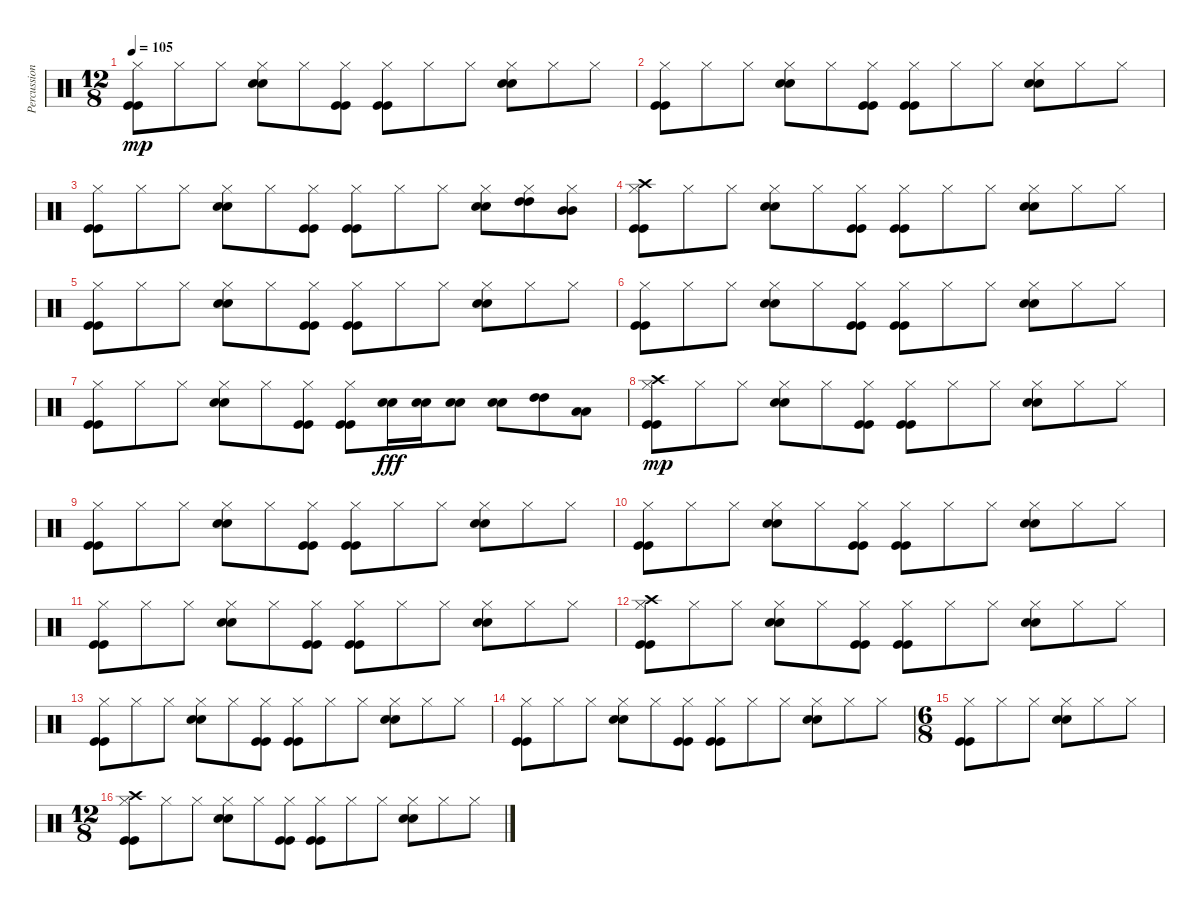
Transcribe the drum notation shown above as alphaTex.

\track ("Percussion" "Percussion") {instrument percussion}
\staff {score}
\articulation defaults
\ts (12 8)
\tempo 105
\clef neutral
\ks c
("Kick (hit)" "Kick (hit)" "Hi-Hat (closed)").8{dy mp} "Hi-Hat (closed)".8 "Hi-Hat (closed)".8 ("Snare (hit) 2" "Snare (hit) 2" "Hi-Hat (closed)").8 "Hi-Hat (closed)".8 ("Kick (hit)" "Kick (hit)" "Hi-Hat (closed)").8 ("Kick (hit)" "Kick (hit)" "Hi-Hat (closed)").8 "Hi-Hat (closed)".8 "Hi-Hat (closed)".8 ("Snare (hit) 2" "Snare (hit) 2" "Hi-Hat (closed)").8 "Hi-Hat (closed)".8 "Hi-Hat (closed)".8 |
("Kick (hit)" "Kick (hit)" "Hi-Hat (closed)").8 "Hi-Hat (closed)".8 "Hi-Hat (closed)".8 ("Snare (hit) 2" "Snare (hit) 2" "Hi-Hat (closed)").8 "Hi-Hat (closed)".8 ("Kick (hit)" "Kick (hit)" "Hi-Hat (closed)").8 ("Kick (hit)" "Kick (hit)" "Hi-Hat (closed)").8 "Hi-Hat (closed)".8 "Hi-Hat (closed)".8 ("Snare (hit) 2" "Snare (hit) 2" "Hi-Hat (closed)").8 "Hi-Hat (closed)".8 "Hi-Hat (closed)".8 |
("Kick (hit)" "Kick (hit)" "Hi-Hat (closed)").8 "Hi-Hat (closed)".8 "Hi-Hat (closed)".8 ("Snare (hit) 2" "Snare (hit) 2" "Hi-Hat (closed)").8 "Hi-Hat (closed)".8 ("Kick (hit)" "Kick (hit)" "Hi-Hat (closed)").8 ("Kick (hit)" "Kick (hit)" "Hi-Hat (closed)").8 "Hi-Hat (closed)".8 "Hi-Hat (closed)".8 ("Snare (hit) 2" "Snare (hit) 2" "Hi-Hat (closed)").8 ("High Tom (hit)" "High Tom (hit)" "Hi-Hat (closed)").8 ("Mid Tom (hit)" "Mid Tom (hit)" "Hi-Hat (closed)").8 |
("Kick (hit)" "Crash high (hit)" "Kick (hit)" "Hi-Hat (closed)").8 "Hi-Hat (closed)".8 "Hi-Hat (closed)".8 ("Snare (hit) 2" "Snare (hit) 2" "Hi-Hat (closed)").8 "Hi-Hat (closed)".8 ("Kick (hit)" "Kick (hit)" "Hi-Hat (closed)").8 ("Kick (hit)" "Kick (hit)" "Hi-Hat (closed)").8 "Hi-Hat (closed)".8 "Hi-Hat (closed)".8 ("Snare (hit) 2" "Snare (hit) 2" "Hi-Hat (closed)").8 "Hi-Hat (closed)".8 "Hi-Hat (closed)".8 |
("Kick (hit)" "Kick (hit)" "Hi-Hat (closed)").8 "Hi-Hat (closed)".8 "Hi-Hat (closed)".8 ("Snare (hit) 2" "Snare (hit) 2" "Hi-Hat (closed)").8 "Hi-Hat (closed)".8 ("Kick (hit)" "Kick (hit)" "Hi-Hat (closed)").8 ("Kick (hit)" "Kick (hit)" "Hi-Hat (closed)").8 "Hi-Hat (closed)".8 "Hi-Hat (closed)".8 ("Snare (hit) 2" "Snare (hit) 2" "Hi-Hat (closed)").8 "Hi-Hat (closed)".8 "Hi-Hat (closed)".8 |
("Kick (hit)" "Kick (hit)" "Hi-Hat (closed)").8 "Hi-Hat (closed)".8 "Hi-Hat (closed)".8 ("Snare (hit) 2" "Snare (hit) 2" "Hi-Hat (closed)").8 "Hi-Hat (closed)".8 ("Kick (hit)" "Kick (hit)" "Hi-Hat (closed)").8 ("Kick (hit)" "Kick (hit)" "Hi-Hat (closed)").8 "Hi-Hat (closed)".8 "Hi-Hat (closed)".8 ("Snare (hit) 2" "Snare (hit) 2" "Hi-Hat (closed)").8 "Hi-Hat (closed)".8 "Hi-Hat (closed)".8 |
("Kick (hit)" "Kick (hit)" "Hi-Hat (closed)").8 "Hi-Hat (closed)".8 "Hi-Hat (closed)".8 ("Snare (hit) 2" "Snare (hit) 2" "Hi-Hat (closed)").8 "Hi-Hat (closed)".8 ("Kick (hit)" "Kick (hit)" "Hi-Hat (closed)").8 ("Kick (hit)" "Kick (hit)" "Hi-Hat (closed)").8 ("Snare (hit) 2" "Snare (hit) 2").16{dy fff} ("Snare (hit) 2" "Snare (hit) 2").16 ("Snare (hit) 2" "Snare (hit) 2").8 ("Snare (hit) 2" "Snare (hit) 2").8 ("High Tom (hit)" "High Tom (hit)").8 ("Low Tom (hit)" "Low Tom (hit)").8 |
("Kick (hit)" "Crash high (hit)" "Kick (hit)" "Hi-Hat (closed)").8{dy mp} "Hi-Hat (closed)".8 "Hi-Hat (closed)".8 ("Snare (hit) 2" "Snare (hit) 2" "Hi-Hat (closed)").8 "Hi-Hat (closed)".8 ("Kick (hit)" "Kick (hit)" "Hi-Hat (closed)").8 ("Kick (hit)" "Kick (hit)" "Hi-Hat (closed)").8 "Hi-Hat (closed)".8 "Hi-Hat (closed)".8 ("Snare (hit) 2" "Snare (hit) 2" "Hi-Hat (closed)").8 "Hi-Hat (closed)".8 "Hi-Hat (closed)".8 |
("Kick (hit)" "Kick (hit)" "Hi-Hat (closed)").8 "Hi-Hat (closed)".8 "Hi-Hat (closed)".8 ("Snare (hit) 2" "Snare (hit) 2" "Hi-Hat (closed)").8 "Hi-Hat (closed)".8 ("Kick (hit)" "Kick (hit)" "Hi-Hat (closed)").8 ("Kick (hit)" "Kick (hit)" "Hi-Hat (closed)").8 "Hi-Hat (closed)".8 "Hi-Hat (closed)".8 ("Snare (hit) 2" "Snare (hit) 2" "Hi-Hat (closed)").8 "Hi-Hat (closed)".8 "Hi-Hat (closed)".8 |
("Kick (hit)" "Kick (hit)" "Hi-Hat (closed)").8 "Hi-Hat (closed)".8 "Hi-Hat (closed)".8 ("Snare (hit) 2" "Snare (hit) 2" "Hi-Hat (closed)").8 "Hi-Hat (closed)".8 ("Kick (hit)" "Kick (hit)" "Hi-Hat (closed)").8 ("Kick (hit)" "Kick (hit)" "Hi-Hat (closed)").8 "Hi-Hat (closed)".8 "Hi-Hat (closed)".8 ("Snare (hit) 2" "Snare (hit) 2" "Hi-Hat (closed)").8 "Hi-Hat (closed)".8 "Hi-Hat (closed)".8 |
("Kick (hit)" "Kick (hit)" "Hi-Hat (closed)").8 "Hi-Hat (closed)".8 "Hi-Hat (closed)".8 ("Snare (hit) 2" "Snare (hit) 2" "Hi-Hat (closed)").8 "Hi-Hat (closed)".8 ("Kick (hit)" "Kick (hit)" "Hi-Hat (closed)").8 ("Kick (hit)" "Kick (hit)" "Hi-Hat (closed)").8 "Hi-Hat (closed)".8 "Hi-Hat (closed)".8 ("Snare (hit) 2" "Snare (hit) 2" "Hi-Hat (closed)").8 "Hi-Hat (closed)".8 "Hi-Hat (closed)".8 |
("Kick (hit)" "Crash high (hit)" "Kick (hit)" "Hi-Hat (closed)").8 "Hi-Hat (closed)".8 "Hi-Hat (closed)".8 ("Snare (hit) 2" "Snare (hit) 2" "Hi-Hat (closed)").8 "Hi-Hat (closed)".8 ("Kick (hit)" "Kick (hit)" "Hi-Hat (closed)").8 ("Kick (hit)" "Kick (hit)" "Hi-Hat (closed)").8 "Hi-Hat (closed)".8 "Hi-Hat (closed)".8 ("Snare (hit) 2" "Snare (hit) 2" "Hi-Hat (closed)").8 "Hi-Hat (closed)".8 "Hi-Hat (closed)".8 |
("Kick (hit)" "Kick (hit)" "Hi-Hat (closed)").8 "Hi-Hat (closed)".8 "Hi-Hat (closed)".8 ("Snare (hit) 2" "Snare (hit) 2" "Hi-Hat (closed)").8 "Hi-Hat (closed)".8 ("Kick (hit)" "Kick (hit)" "Hi-Hat (closed)").8 ("Kick (hit)" "Kick (hit)" "Hi-Hat (closed)").8 "Hi-Hat (closed)".8 "Hi-Hat (closed)".8 ("Snare (hit) 2" "Snare (hit) 2" "Hi-Hat (closed)").8 "Hi-Hat (closed)".8 "Hi-Hat (closed)".8 |
("Kick (hit)" "Kick (hit)" "Hi-Hat (closed)").8 "Hi-Hat (closed)".8 "Hi-Hat (closed)".8 ("Snare (hit) 2" "Snare (hit) 2" "Hi-Hat (closed)").8 "Hi-Hat (closed)".8 ("Kick (hit)" "Kick (hit)" "Hi-Hat (closed)").8 ("Kick (hit)" "Kick (hit)" "Hi-Hat (closed)").8 "Hi-Hat (closed)".8 "Hi-Hat (closed)".8 ("Snare (hit) 2" "Snare (hit) 2" "Hi-Hat (closed)").8 "Hi-Hat (closed)".8 "Hi-Hat (closed)".8 |
\ts (6 8)
("Kick (hit)" "Kick (hit)" "Hi-Hat (closed)").8 "Hi-Hat (closed)".8 "Hi-Hat (closed)".8 ("Snare (hit) 2" "Snare (hit) 2" "Hi-Hat (closed)").8 "Hi-Hat (closed)".8 "Hi-Hat (closed)".8 |
\ts (12 8)
("Kick (hit)" "Crash high (hit)" "Kick (hit)" "Hi-Hat (closed)").8 "Hi-Hat (closed)".8 "Hi-Hat (closed)".8 ("Snare (hit) 2" "Snare (hit) 2" "Hi-Hat (closed)").8 "Hi-Hat (closed)".8 ("Kick (hit)" "Kick (hit)" "Hi-Hat (closed)").8 ("Kick (hit)" "Kick (hit)" "Hi-Hat (closed)").8 "Hi-Hat (closed)".8 "Hi-Hat (closed)".8 ("Snare (hit) 2" "Snare (hit) 2" "Hi-Hat (closed)").8 "Hi-Hat (closed)".8 "Hi-Hat (closed)".8
